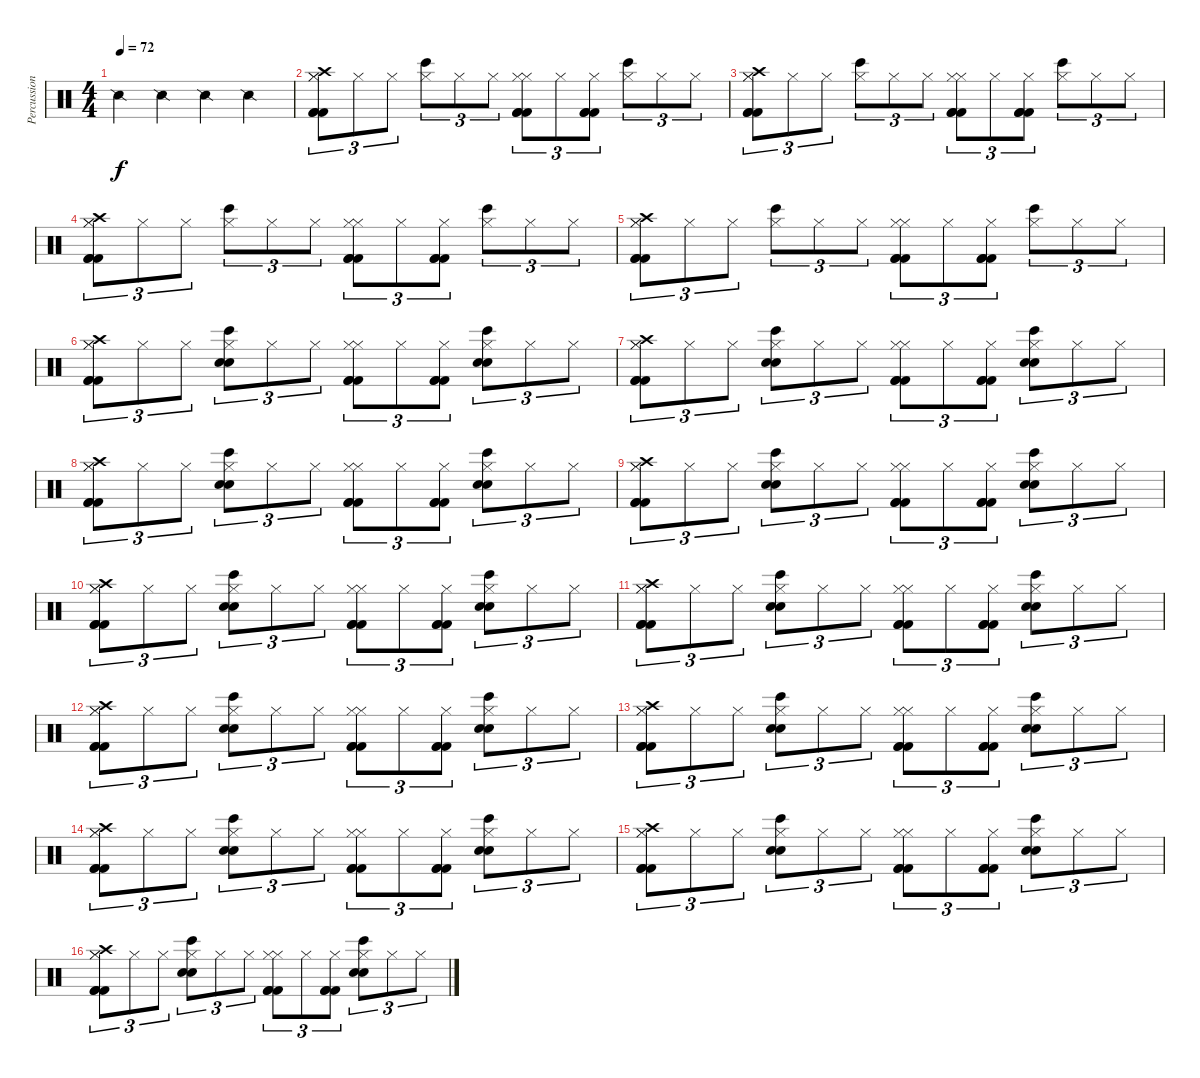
\track ("Percussions" "Percussion") {instrument percussion}
\staff {score}
\articulation defaults
\ts (4 4)
\tempo 72
\clef neutral
\ks c "Snare (side stick) 2".4{dy f} "Snare (side stick) 2".4 "Snare (side stick) 2".4 "Snare (side stick) 2".4
|
("Hi-Hat (closed)" "Hi-Hat (closed)" "Kick (hit) 2" "Kick (hit) 2" "Kick (hit) 2" "Crash high (hit)").8{tu (3 2)} "Hi-Hat (closed)".8{tu (3 2)} "Hi-Hat (closed)".8{tu (3 2)} ("Hi-Hat (closed)" "Bongo High (hit)").8{tu (3 2)} "Hi-Hat (closed)".8{tu (3 2)} "Hi-Hat (closed)".8{tu (3 2)} ("Hi-Hat (closed)" "Hi-Hat (closed)" "Kick (hit) 2" "Kick (hit) 2" "Kick (hit) 2").8{tu (3 2)} "Hi-Hat (closed)".8{tu (3 2)} ("Hi-Hat (closed)" "Kick (hit) 2" "Kick (hit) 2" "Kick (hit) 2").8{tu (3 2)} ("Hi-Hat (closed)" "Bongo High (hit)").8{tu (3 2)} "Hi-Hat (closed)".8{tu (3 2)} "Hi-Hat (closed)".8{tu (3 2)} |
("Hi-Hat (closed)" "Hi-Hat (closed)" "Kick (hit) 2" "Kick (hit) 2" "Kick (hit) 2" "Crash high (hit)").8{tu (3 2)} "Hi-Hat (closed)".8{tu (3 2)} "Hi-Hat (closed)".8{tu (3 2)} ("Hi-Hat (closed)" "Bongo High (hit)").8{tu (3 2)} "Hi-Hat (closed)".8{tu (3 2)} "Hi-Hat (closed)".8{tu (3 2)} ("Hi-Hat (closed)" "Hi-Hat (closed)" "Kick (hit) 2" "Kick (hit) 2" "Kick (hit) 2").8{tu (3 2)} "Hi-Hat (closed)".8{tu (3 2)} ("Hi-Hat (closed)" "Kick (hit) 2" "Kick (hit) 2" "Kick (hit) 2").8{tu (3 2)} ("Hi-Hat (closed)" "Bongo High (hit)").8{tu (3 2)} "Hi-Hat (closed)".8{tu (3 2)} "Hi-Hat (closed)".8{tu (3 2)} |
("Hi-Hat (closed)" "Hi-Hat (closed)" "Kick (hit) 2" "Kick (hit) 2" "Kick (hit) 2" "Crash high (hit)").8{tu (3 2)} "Hi-Hat (closed)".8{tu (3 2)} "Hi-Hat (closed)".8{tu (3 2)} ("Hi-Hat (closed)" "Bongo High (hit)").8{tu (3 2)} "Hi-Hat (closed)".8{tu (3 2)} "Hi-Hat (closed)".8{tu (3 2)} ("Hi-Hat (closed)" "Hi-Hat (closed)" "Kick (hit) 2" "Kick (hit) 2" "Kick (hit) 2").8{tu (3 2)} "Hi-Hat (closed)".8{tu (3 2)} ("Hi-Hat (closed)" "Kick (hit) 2" "Kick (hit) 2" "Kick (hit) 2").8{tu (3 2)} ("Hi-Hat (closed)" "Bongo High (hit)").8{tu (3 2)} "Hi-Hat (closed)".8{tu (3 2)} "Hi-Hat (closed)".8{tu (3 2)} |
("Hi-Hat (closed)" "Hi-Hat (closed)" "Kick (hit) 2" "Kick (hit) 2" "Kick (hit) 2" "Crash high (hit)").8{tu (3 2)} "Hi-Hat (closed)".8{tu (3 2)} "Hi-Hat (closed)".8{tu (3 2)} ("Hi-Hat (closed)" "Bongo High (hit)").8{tu (3 2)} "Hi-Hat (closed)".8{tu (3 2)} "Hi-Hat (closed)".8{tu (3 2)} ("Hi-Hat (closed)" "Hi-Hat (closed)" "Kick (hit) 2" "Kick (hit) 2" "Kick (hit) 2").8{tu (3 2)} "Hi-Hat (closed)".8{tu (3 2)} ("Hi-Hat (closed)" "Kick (hit) 2" "Kick (hit) 2" "Kick (hit) 2").8{tu (3 2)} ("Hi-Hat (closed)" "Bongo High (hit)").8{tu (3 2)} "Hi-Hat (closed)".8{tu (3 2)} "Hi-Hat (closed)".8{tu (3 2)} |
("Hi-Hat (closed)" "Hi-Hat (closed)" "Kick (hit) 2" "Kick (hit) 2" "Kick (hit) 2" "Crash high (hit)").8{tu (3 2)} "Hi-Hat (closed)".8{tu (3 2)} "Hi-Hat (closed)".8{tu (3 2)} ("Hi-Hat (closed)" "Bongo High (hit)" "Snare (hit) 2" "Snare (hit) 2").8{tu (3 2)} "Hi-Hat (closed)".8{tu (3 2)} "Hi-Hat (closed)".8{tu (3 2)} ("Hi-Hat (closed)" "Hi-Hat (closed)" "Kick (hit) 2" "Kick (hit) 2" "Kick (hit) 2").8{tu (3 2)} "Hi-Hat (closed)".8{tu (3 2)} ("Hi-Hat (closed)" "Kick (hit) 2" "Kick (hit) 2" "Kick (hit) 2").8{tu (3 2)} ("Hi-Hat (closed)" "Bongo High (hit)" "Snare (hit) 2" "Snare (hit) 2").8{tu (3 2)} "Hi-Hat (closed)".8{tu (3 2)} "Hi-Hat (closed)".8{tu (3 2)} |
("Hi-Hat (closed)" "Hi-Hat (closed)" "Kick (hit) 2" "Kick (hit) 2" "Kick (hit) 2" "Crash high (hit)").8{tu (3 2)} "Hi-Hat (closed)".8{tu (3 2)} "Hi-Hat (closed)".8{tu (3 2)} ("Hi-Hat (closed)" "Bongo High (hit)" "Snare (hit) 2" "Snare (hit) 2").8{tu (3 2)} "Hi-Hat (closed)".8{tu (3 2)} "Hi-Hat (closed)".8{tu (3 2)} ("Hi-Hat (closed)" "Hi-Hat (closed)" "Kick (hit) 2" "Kick (hit) 2" "Kick (hit) 2").8{tu (3 2)} "Hi-Hat (closed)".8{tu (3 2)} ("Hi-Hat (closed)" "Kick (hit) 2" "Kick (hit) 2" "Kick (hit) 2").8{tu (3 2)} ("Hi-Hat (closed)" "Bongo High (hit)" "Snare (hit) 2" "Snare (hit) 2").8{tu (3 2)} "Hi-Hat (closed)".8{tu (3 2)} "Hi-Hat (closed)".8{tu (3 2)} |
("Hi-Hat (closed)" "Hi-Hat (closed)" "Kick (hit) 2" "Kick (hit) 2" "Kick (hit) 2" "Crash high (hit)").8{tu (3 2)} "Hi-Hat (closed)".8{tu (3 2)} "Hi-Hat (closed)".8{tu (3 2)} ("Hi-Hat (closed)" "Bongo High (hit)" "Snare (hit) 2" "Snare (hit) 2").8{tu (3 2)} "Hi-Hat (closed)".8{tu (3 2)} "Hi-Hat (closed)".8{tu (3 2)} ("Hi-Hat (closed)" "Hi-Hat (closed)" "Kick (hit) 2" "Kick (hit) 2" "Kick (hit) 2").8{tu (3 2)} "Hi-Hat (closed)".8{tu (3 2)} ("Hi-Hat (closed)" "Kick (hit) 2" "Kick (hit) 2" "Kick (hit) 2").8{tu (3 2)} ("Hi-Hat (closed)" "Bongo High (hit)" "Snare (hit) 2" "Snare (hit) 2").8{tu (3 2)} "Hi-Hat (closed)".8{tu (3 2)} "Hi-Hat (closed)".8{tu (3 2)} |
("Hi-Hat (closed)" "Hi-Hat (closed)" "Kick (hit) 2" "Kick (hit) 2" "Kick (hit) 2" "Crash high (hit)").8{tu (3 2)} "Hi-Hat (closed)".8{tu (3 2)} "Hi-Hat (closed)".8{tu (3 2)} ("Hi-Hat (closed)" "Bongo High (hit)" "Snare (hit) 2" "Snare (hit) 2").8{tu (3 2)} "Hi-Hat (closed)".8{tu (3 2)} "Hi-Hat (closed)".8{tu (3 2)} ("Hi-Hat (closed)" "Hi-Hat (closed)" "Kick (hit) 2" "Kick (hit) 2" "Kick (hit) 2").8{tu (3 2)} "Hi-Hat (closed)".8{tu (3 2)} ("Hi-Hat (closed)" "Kick (hit) 2" "Kick (hit) 2" "Kick (hit) 2").8{tu (3 2)} ("Hi-Hat (closed)" "Bongo High (hit)" "Snare (hit) 2" "Snare (hit) 2").8{tu (3 2)} "Hi-Hat (closed)".8{tu (3 2)} "Hi-Hat (closed)".8{tu (3 2)} |
("Hi-Hat (closed)" "Hi-Hat (closed)" "Kick (hit) 2" "Kick (hit) 2" "Kick (hit) 2" "Crash high (hit)").8{tu (3 2)} "Hi-Hat (closed)".8{tu (3 2)} "Hi-Hat (closed)".8{tu (3 2)} ("Hi-Hat (closed)" "Bongo High (hit)" "Snare (hit) 2" "Snare (hit) 2").8{tu (3 2)} "Hi-Hat (closed)".8{tu (3 2)} "Hi-Hat (closed)".8{tu (3 2)} ("Hi-Hat (closed)" "Hi-Hat (closed)" "Kick (hit) 2" "Kick (hit) 2" "Kick (hit) 2").8{tu (3 2)} "Hi-Hat (closed)".8{tu (3 2)} ("Hi-Hat (closed)" "Kick (hit) 2" "Kick (hit) 2" "Kick (hit) 2").8{tu (3 2)} ("Hi-Hat (closed)" "Bongo High (hit)" "Snare (hit) 2" "Snare (hit) 2").8{tu (3 2)} "Hi-Hat (closed)".8{tu (3 2)} "Hi-Hat (closed)".8{tu (3 2)} |
("Hi-Hat (closed)" "Hi-Hat (closed)" "Kick (hit) 2" "Kick (hit) 2" "Kick (hit) 2" "Crash high (hit)").8{tu (3 2)} "Hi-Hat (closed)".8{tu (3 2)} "Hi-Hat (closed)".8{tu (3 2)} ("Hi-Hat (closed)" "Bongo High (hit)" "Snare (hit) 2" "Snare (hit) 2").8{tu (3 2)} "Hi-Hat (closed)".8{tu (3 2)} "Hi-Hat (closed)".8{tu (3 2)} ("Hi-Hat (closed)" "Hi-Hat (closed)" "Kick (hit) 2" "Kick (hit) 2" "Kick (hit) 2").8{tu (3 2)} "Hi-Hat (closed)".8{tu (3 2)} ("Hi-Hat (closed)" "Kick (hit) 2" "Kick (hit) 2" "Kick (hit) 2").8{tu (3 2)} ("Hi-Hat (closed)" "Bongo High (hit)" "Snare (hit) 2" "Snare (hit) 2").8{tu (3 2)} "Hi-Hat (closed)".8{tu (3 2)} "Hi-Hat (closed)".8{tu (3 2)} |
("Hi-Hat (closed)" "Hi-Hat (closed)" "Kick (hit) 2" "Kick (hit) 2" "Kick (hit) 2" "Crash high (hit)").8{tu (3 2)} "Hi-Hat (closed)".8{tu (3 2)} "Hi-Hat (closed)".8{tu (3 2)} ("Hi-Hat (closed)" "Bongo High (hit)" "Snare (hit) 2" "Snare (hit) 2").8{tu (3 2)} "Hi-Hat (closed)".8{tu (3 2)} "Hi-Hat (closed)".8{tu (3 2)} ("Hi-Hat (closed)" "Hi-Hat (closed)" "Kick (hit) 2" "Kick (hit) 2" "Kick (hit) 2").8{tu (3 2)} "Hi-Hat (closed)".8{tu (3 2)} ("Hi-Hat (closed)" "Kick (hit) 2" "Kick (hit) 2" "Kick (hit) 2").8{tu (3 2)} ("Hi-Hat (closed)" "Bongo High (hit)" "Snare (hit) 2" "Snare (hit) 2").8{tu (3 2)} "Hi-Hat (closed)".8{tu (3 2)} "Hi-Hat (closed)".8{tu (3 2)} |
("Hi-Hat (closed)" "Hi-Hat (closed)" "Kick (hit) 2" "Kick (hit) 2" "Kick (hit) 2" "Crash high (hit)").8{tu (3 2)} "Hi-Hat (closed)".8{tu (3 2)} "Hi-Hat (closed)".8{tu (3 2)} ("Hi-Hat (closed)" "Bongo High (hit)" "Snare (hit) 2" "Snare (hit) 2").8{tu (3 2)} "Hi-Hat (closed)".8{tu (3 2)} "Hi-Hat (closed)".8{tu (3 2)} ("Hi-Hat (closed)" "Hi-Hat (closed)" "Kick (hit) 2" "Kick (hit) 2" "Kick (hit) 2").8{tu (3 2)} "Hi-Hat (closed)".8{tu (3 2)} ("Hi-Hat (closed)" "Kick (hit) 2" "Kick (hit) 2" "Kick (hit) 2").8{tu (3 2)} ("Hi-Hat (closed)" "Bongo High (hit)" "Snare (hit) 2" "Snare (hit) 2").8{tu (3 2)} "Hi-Hat (closed)".8{tu (3 2)} "Hi-Hat (closed)".8{tu (3 2)} |
("Hi-Hat (closed)" "Hi-Hat (closed)" "Kick (hit) 2" "Kick (hit) 2" "Kick (hit) 2" "Crash high (hit)").8{tu (3 2)} "Hi-Hat (closed)".8{tu (3 2)} "Hi-Hat (closed)".8{tu (3 2)} ("Hi-Hat (closed)" "Bongo High (hit)" "Snare (hit) 2" "Snare (hit) 2").8{tu (3 2)} "Hi-Hat (closed)".8{tu (3 2)} "Hi-Hat (closed)".8{tu (3 2)} ("Hi-Hat (closed)" "Hi-Hat (closed)" "Kick (hit) 2" "Kick (hit) 2" "Kick (hit) 2").8{tu (3 2)} "Hi-Hat (closed)".8{tu (3 2)} ("Hi-Hat (closed)" "Kick (hit) 2" "Kick (hit) 2" "Kick (hit) 2").8{tu (3 2)} ("Hi-Hat (closed)" "Bongo High (hit)" "Snare (hit) 2" "Snare (hit) 2").8{tu (3 2)} "Hi-Hat (closed)".8{tu (3 2)} "Hi-Hat (closed)".8{tu (3 2)} |
("Hi-Hat (closed)" "Hi-Hat (closed)" "Kick (hit) 2" "Kick (hit) 2" "Kick (hit) 2" "Crash high (hit)").8{tu (3 2)} "Hi-Hat (closed)".8{tu (3 2)} "Hi-Hat (closed)".8{tu (3 2)} ("Hi-Hat (closed)" "Bongo High (hit)" "Snare (hit) 2" "Snare (hit) 2").8{tu (3 2)} "Hi-Hat (closed)".8{tu (3 2)} "Hi-Hat (closed)".8{tu (3 2)} ("Hi-Hat (closed)" "Hi-Hat (closed)" "Kick (hit) 2" "Kick (hit) 2" "Kick (hit) 2").8{tu (3 2)} "Hi-Hat (closed)".8{tu (3 2)} ("Hi-Hat (closed)" "Kick (hit) 2" "Kick (hit) 2" "Kick (hit) 2").8{tu (3 2)} ("Hi-Hat (closed)" "Bongo High (hit)" "Snare (hit) 2" "Snare (hit) 2").8{tu (3 2)} "Hi-Hat (closed)".8{tu (3 2)} "Hi-Hat (closed)".8{tu (3 2)} |
("Hi-Hat (closed)" "Hi-Hat (closed)" "Kick (hit) 2" "Kick (hit) 2" "Kick (hit) 2" "Crash high (hit)").8{tu (3 2)} "Hi-Hat (closed)".8{tu (3 2)} "Hi-Hat (closed)".8{tu (3 2)} ("Hi-Hat (closed)" "Bongo High (hit)" "Snare (hit) 2" "Snare (hit) 2").8{tu (3 2)} "Hi-Hat (closed)".8{tu (3 2)} "Hi-Hat (closed)".8{tu (3 2)} ("Hi-Hat (closed)" "Hi-Hat (closed)" "Kick (hit) 2" "Kick (hit) 2" "Kick (hit) 2").8{tu (3 2)} "Hi-Hat (closed)".8{tu (3 2)} ("Hi-Hat (closed)" "Kick (hit) 2" "Kick (hit) 2" "Kick (hit) 2").8{tu (3 2)} ("Hi-Hat (closed)" "Bongo High (hit)" "Snare (hit) 2" "Snare (hit) 2").8{tu (3 2)} "Hi-Hat (closed)".8{tu (3 2)} "Hi-Hat (closed)".8{tu (3 2)}
